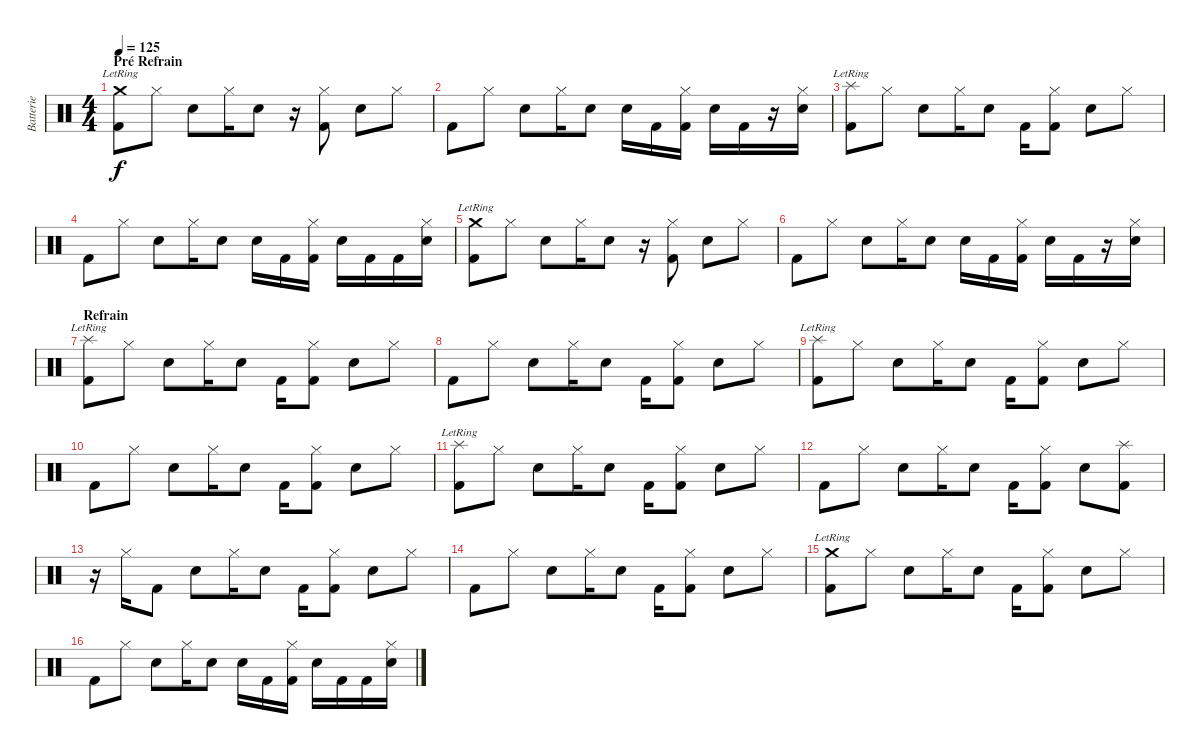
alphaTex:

\track ("Batterie" "Batterie") {instrument percussion}
\staff {score}
\articulation defaults
\ts (4 4)
\section ("" "Pré Refrain")
\tempo 125
\clef neutral
\ks c
("Crash medium (hit)"{lr} "Kick (hit) 2").8{dy f} "Hi-Hat (closed)".8 "Electric Snare (hit)".8 "Hi-Hat (closed)".16 "Electric Snare (hit)".8 r.16 ("Hi-Hat (closed)" "Kick (hit) 2").8 "Electric Snare (hit)".8 "Hi-Hat (closed)".8 |
"Kick (hit) 2".8 "Hi-Hat (closed)".8 "Electric Snare (hit)".8 "Hi-Hat (closed)".16 "Electric Snare (hit)".8 "Electric Snare (hit)".16 "Kick (hit) 2".16 ("Hi-Hat (closed)" "Kick (hit) 2").16 "Electric Snare (hit)".16 "Kick (hit) 2".16 r.16 ("Electric Snare (hit)" "Hi-Hat (closed)").16 |
("Splash (hit)"{lr} "Kick (hit) 2").8 "Hi-Hat (closed)".8 "Electric Snare (hit)".8 "Hi-Hat (closed)".16 "Electric Snare (hit)".8 "Kick (hit) 2".16 ("Hi-Hat (closed)" "Kick (hit) 2").8 "Electric Snare (hit)".8 "Hi-Hat (closed)".8 |
"Kick (hit) 2".8 "Hi-Hat (closed)".8 "Electric Snare (hit)".8 "Hi-Hat (closed)".16 "Electric Snare (hit)".8 "Electric Snare (hit)".16 "Kick (hit) 2".16 ("Hi-Hat (closed)" "Kick (hit) 2").16 "Electric Snare (hit)".16 "Kick (hit) 2".16 "Kick (hit) 2".16 ("Electric Snare (hit)" "Hi-Hat (closed)").16 |
("Crash medium (hit)"{lr} "Kick (hit) 2").8 "Hi-Hat (closed)".8 "Electric Snare (hit)".8 "Hi-Hat (closed)".16 "Electric Snare (hit)".8 r.16 ("Hi-Hat (closed)" "Kick (hit) 2").8 "Electric Snare (hit)".8 "Hi-Hat (closed)".8 |
"Kick (hit) 2".8 "Hi-Hat (closed)".8 "Electric Snare (hit)".8 "Hi-Hat (closed)".16 "Electric Snare (hit)".8 "Electric Snare (hit)".16 "Kick (hit) 2".16 ("Hi-Hat (closed)" "Kick (hit) 2").16 "Electric Snare (hit)".16 "Kick (hit) 2".16 r.16 ("Electric Snare (hit)" "Hi-Hat (closed)").16 |
\section ("" "Refrain")
("Splash (hit)"{lr} "Kick (hit) 2").8 "Hi-Hat (closed)".8 "Electric Snare (hit)".8 "Hi-Hat (closed)".16 "Electric Snare (hit)".8 "Kick (hit) 2".16 ("Hi-Hat (closed)" "Kick (hit) 2").8 "Electric Snare (hit)".8 "Hi-Hat (closed)".8 |
"Kick (hit) 2".8 "Hi-Hat (closed)".8 "Electric Snare (hit)".8 "Hi-Hat (closed)".16 "Electric Snare (hit)".8 "Kick (hit) 2".16 ("Hi-Hat (closed)" "Kick (hit) 2").8 "Electric Snare (hit)".8 "Hi-Hat (closed)".8 |
("Splash (hit)"{lr} "Kick (hit) 2").8 "Hi-Hat (closed)".8 "Electric Snare (hit)".8 "Hi-Hat (closed)".16 "Electric Snare (hit)".8 "Kick (hit) 2".16 ("Hi-Hat (closed)" "Kick (hit) 2").8 "Electric Snare (hit)".8 "Hi-Hat (closed)".8 |
"Kick (hit) 2".8 "Hi-Hat (closed)".8 "Electric Snare (hit)".8 "Hi-Hat (closed)".16 "Electric Snare (hit)".8 "Kick (hit) 2".16 ("Hi-Hat (closed)" "Kick (hit) 2").8 "Electric Snare (hit)".8 "Hi-Hat (closed)".8 |
("Splash (hit)"{lr} "Kick (hit) 2").8 "Hi-Hat (closed)".8 "Electric Snare (hit)".8 "Hi-Hat (closed)".16 "Electric Snare (hit)".8 "Kick (hit) 2".16 ("Hi-Hat (closed)" "Kick (hit) 2").8 "Electric Snare (hit)".8 "Hi-Hat (closed)".8 |
"Kick (hit) 2".8 "Hi-Hat (closed)".8 "Electric Snare (hit)".8 "Hi-Hat (closed)".16 "Electric Snare (hit)".8 "Kick (hit) 2".16 ("Hi-Hat (closed)" "Kick (hit) 2").8 "Electric Snare (hit)".8 ("Splash (hit)" "Kick (hit) 2").8 |
r.16 "Hi-Hat (closed)".16 "Kick (hit) 2".8 "Electric Snare (hit)".8 "Hi-Hat (closed)".16 "Electric Snare (hit)".8 "Kick (hit) 2".16 ("Hi-Hat (closed)" "Kick (hit) 2").8 "Electric Snare (hit)".8 "Hi-Hat (closed)".8 |
"Kick (hit) 2".8 "Hi-Hat (closed)".8 "Electric Snare (hit)".8 "Hi-Hat (closed)".16 "Electric Snare (hit)".8 "Kick (hit) 2".16 ("Hi-Hat (closed)" "Kick (hit) 2").8 "Electric Snare (hit)".8 "Hi-Hat (closed)".8 |
("Crash medium (hit)"{lr} "Kick (hit) 2").8 "Hi-Hat (closed)".8 "Electric Snare (hit)".8 "Hi-Hat (closed)".16 "Electric Snare (hit)".8 "Kick (hit) 2".16 ("Hi-Hat (closed)" "Kick (hit) 2").8 "Electric Snare (hit)".8 "Hi-Hat (closed)".8 |
"Kick (hit) 2".8 "Hi-Hat (closed)".8 "Electric Snare (hit)".8 "Hi-Hat (closed)".16 "Electric Snare (hit)".8 "Electric Snare (hit)".16 "Kick (hit) 2".16 ("Hi-Hat (closed)" "Kick (hit) 2").16 "Electric Snare (hit)".16 "Kick (hit) 2".16 "Kick (hit) 2".16 ("Electric Snare (hit)" "Hi-Hat (closed)").16
